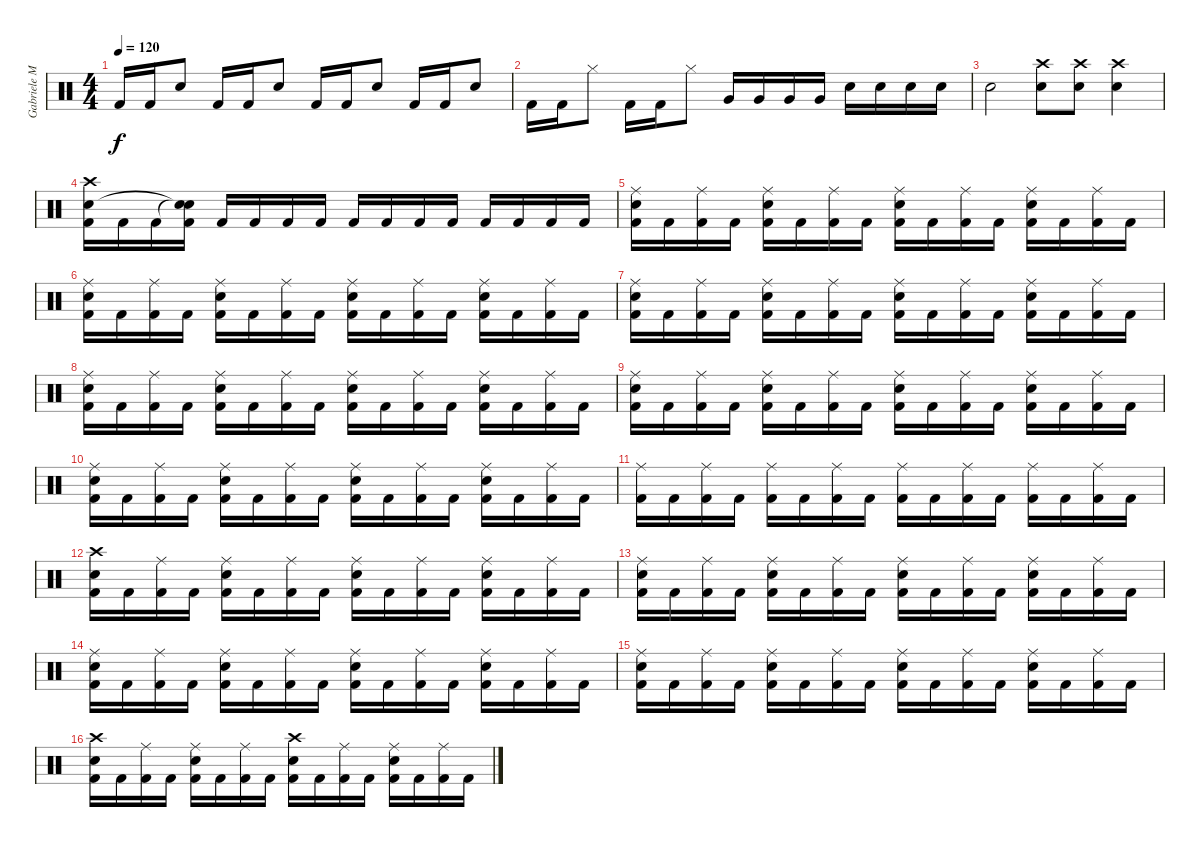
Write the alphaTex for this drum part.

\track ("Gabriele Malatesta" "Gabriele M") {instrument percussion}
\staff {score}
\articulation defaults
\ts (4 4)
\tempo 120
\clef neutral
\ks c "Kick (hit) 2".16{dy f} "Kick (hit) 2".16 "Electric Snare (hit)".8 "Kick (hit) 2".16 "Kick (hit) 2".16 "Electric Snare (hit)".8 "Kick (hit) 2".16 "Kick (hit) 2".16 "Electric Snare (hit)".8 "Kick (hit) 2".16 "Kick (hit) 2".16 "Electric Snare (hit)".8
|
"Kick (hit) 2".16 "Kick (hit) 2".16 "Hi-Hat (closed)".8 "Kick (hit) 2".16 "Kick (hit) 2".16 "Hi-Hat (closed)".8 "Very Low Tom (hit)".16 "Very Low Tom (hit)".16 "Very Low Tom (hit)".16 "Very Low Tom (hit)".16 "Electric Snare (hit)".16 "Electric Snare (hit)".16 "Electric Snare (hit)".16 "Electric Snare (hit)".16 |
"Electric Snare (hit)".2 ("Crash high (hit)" "Electric Snare (hit)").8 ("Crash high (hit)" "Electric Snare (hit)").8 ("Crash high (hit)" "Electric Snare (hit)").4 |
("Crash high (hit)" "Electric Snare (hit)" "Kick (hit) 2").16 "Kick (hit) 2".16 "Kick (hit) 2".16 ("Snare (hit)"{t} "Snare (hit)"{t} "Kick (hit) 2").16 "Kick (hit) 2".16 "Kick (hit) 2".16 "Kick (hit) 2".16 "Kick (hit) 2".16 "Kick (hit) 2".16 "Kick (hit) 2".16 "Kick (hit) 2".16 "Kick (hit) 2".16 "Kick (hit) 2".16 "Kick (hit) 2".16 "Kick (hit) 2".16 "Kick (hit) 2".16 |
("Ride (middle)" "Electric Snare (hit)" "Kick (hit) 2").16 "Kick (hit) 2".16 ("Ride (middle)" "Kick (hit) 2").16 "Kick (hit) 2".16 ("Ride (middle)" "Electric Snare (hit)" "Kick (hit) 2").16 "Kick (hit) 2".16 ("Ride (middle)" "Kick (hit) 2").16 "Kick (hit) 2".16 ("Ride (middle)" "Electric Snare (hit)" "Kick (hit) 2").16 "Kick (hit) 2".16 ("Ride (middle)" "Kick (hit) 2").16 "Kick (hit) 2".16 ("Ride (middle)" "Electric Snare (hit)" "Kick (hit) 2").16 "Kick (hit) 2".16 ("Ride (middle)" "Kick (hit) 2").16 "Kick (hit) 2".16 |
("Ride (middle)" "Electric Snare (hit)" "Kick (hit) 2").16 "Kick (hit) 2".16 ("Ride (middle)" "Kick (hit) 2").16 "Kick (hit) 2".16 ("Ride (middle)" "Electric Snare (hit)" "Kick (hit) 2").16 "Kick (hit) 2".16 ("Ride (middle)" "Kick (hit) 2").16 "Kick (hit) 2".16 ("Ride (middle)" "Electric Snare (hit)" "Kick (hit) 2").16 "Kick (hit) 2".16 ("Ride (middle)" "Kick (hit) 2").16 "Kick (hit) 2".16 ("Ride (middle)" "Electric Snare (hit)" "Kick (hit) 2").16 "Kick (hit) 2".16 ("Ride (middle)" "Kick (hit) 2").16 "Kick (hit) 2".16 |
("Ride (middle)" "Electric Snare (hit)" "Kick (hit) 2").16 "Kick (hit) 2".16 ("Ride (middle)" "Kick (hit) 2").16 "Kick (hit) 2".16 ("Ride (middle)" "Electric Snare (hit)" "Kick (hit) 2").16 "Kick (hit) 2".16 ("Ride (middle)" "Kick (hit) 2").16 "Kick (hit) 2".16 ("Ride (middle)" "Electric Snare (hit)" "Kick (hit) 2").16 "Kick (hit) 2".16 ("Ride (middle)" "Kick (hit) 2").16 "Kick (hit) 2".16 ("Ride (middle)" "Electric Snare (hit)" "Kick (hit) 2").16 "Kick (hit) 2".16 ("Ride (middle)" "Kick (hit) 2").16 "Kick (hit) 2".16 |
("Ride (middle)" "Electric Snare (hit)" "Kick (hit) 2").16 "Kick (hit) 2".16 ("Ride (middle)" "Kick (hit) 2").16 "Kick (hit) 2".16 ("Ride (middle)" "Electric Snare (hit)" "Kick (hit) 2").16 "Kick (hit) 2".16 ("Ride (middle)" "Kick (hit) 2").16 "Kick (hit) 2".16 ("Ride (middle)" "Electric Snare (hit)" "Kick (hit) 2").16 "Kick (hit) 2".16 ("Ride (middle)" "Kick (hit) 2").16 "Kick (hit) 2".16 ("Ride (middle)" "Electric Snare (hit)" "Kick (hit) 2").16 "Kick (hit) 2".16 ("Ride (middle)" "Kick (hit) 2").16 "Kick (hit) 2".16 |
("Ride (middle)" "Electric Snare (hit)" "Kick (hit) 2").16 "Kick (hit) 2".16 ("Ride (middle)" "Kick (hit) 2").16 "Kick (hit) 2".16 ("Ride (middle)" "Electric Snare (hit)" "Kick (hit) 2").16 "Kick (hit) 2".16 ("Ride (middle)" "Kick (hit) 2").16 "Kick (hit) 2".16 ("Ride (middle)" "Electric Snare (hit)" "Kick (hit) 2").16 "Kick (hit) 2".16 ("Ride (middle)" "Kick (hit) 2").16 "Kick (hit) 2".16 ("Ride (middle)" "Electric Snare (hit)" "Kick (hit) 2").16 "Kick (hit) 2".16 ("Ride (middle)" "Kick (hit) 2").16 "Kick (hit) 2".16 |
("Ride (middle)" "Electric Snare (hit)" "Kick (hit) 2").16 "Kick (hit) 2".16 ("Ride (middle)" "Kick (hit) 2").16 "Kick (hit) 2".16 ("Ride (middle)" "Electric Snare (hit)" "Kick (hit) 2").16 "Kick (hit) 2".16 ("Ride (middle)" "Kick (hit) 2").16 "Kick (hit) 2".16 ("Ride (middle)" "Electric Snare (hit)" "Kick (hit) 2").16 "Kick (hit) 2".16 ("Ride (middle)" "Kick (hit) 2").16 "Kick (hit) 2".16 ("Ride (middle)" "Electric Snare (hit)" "Kick (hit) 2").16 "Kick (hit) 2".16 ("Ride (middle)" "Kick (hit) 2").16 "Kick (hit) 2".16 |
("Ride (middle)" "Kick (hit) 2").16 "Kick (hit) 2".16 ("Ride (middle)" "Kick (hit) 2").16 "Kick (hit) 2".16 ("Ride (middle)" "Kick (hit) 2").16 "Kick (hit) 2".16 ("Ride (middle)" "Kick (hit) 2").16 "Kick (hit) 2".16 ("Ride (middle)" "Kick (hit) 2").16 "Kick (hit) 2".16 ("Ride (middle)" "Kick (hit) 2").16 "Kick (hit) 2".16 ("Ride (middle)" "Kick (hit) 2").16 "Kick (hit) 2".16 ("Ride (middle)" "Kick (hit) 2").16 "Kick (hit) 2".16 |
("Crash high (hit)" "Electric Snare (hit)" "Kick (hit) 2").16 "Kick (hit) 2".16 ("Ride (middle)" "Kick (hit) 2").16 "Kick (hit) 2".16 ("Ride (middle)" "Electric Snare (hit)" "Kick (hit) 2").16 "Kick (hit) 2".16 ("Ride (middle)" "Kick (hit) 2").16 "Kick (hit) 2".16 ("Ride (middle)" "Electric Snare (hit)" "Kick (hit) 2").16 "Kick (hit) 2".16 ("Ride (middle)" "Kick (hit) 2").16 "Kick (hit) 2".16 ("Ride (middle)" "Electric Snare (hit)" "Kick (hit) 2").16 "Kick (hit) 2".16 ("Ride (middle)" "Kick (hit) 2").16 "Kick (hit) 2".16 |
("Ride (middle)" "Electric Snare (hit)" "Kick (hit) 2").16 "Kick (hit) 2".16 ("Ride (middle)" "Kick (hit) 2").16 "Kick (hit) 2".16 ("Ride (middle)" "Electric Snare (hit)" "Kick (hit) 2").16 "Kick (hit) 2".16 ("Ride (middle)" "Kick (hit) 2").16 "Kick (hit) 2".16 ("Ride (middle)" "Electric Snare (hit)" "Kick (hit) 2").16 "Kick (hit) 2".16 ("Ride (middle)" "Kick (hit) 2").16 "Kick (hit) 2".16 ("Ride (middle)" "Electric Snare (hit)" "Kick (hit) 2").16 "Kick (hit) 2".16 ("Ride (middle)" "Kick (hit) 2").16 "Kick (hit) 2".16 |
("Ride (middle)" "Electric Snare (hit)" "Kick (hit) 2").16 "Kick (hit) 2".16 ("Ride (middle)" "Kick (hit) 2").16 "Kick (hit) 2".16 ("Ride (middle)" "Electric Snare (hit)" "Kick (hit) 2").16 "Kick (hit) 2".16 ("Ride (middle)" "Kick (hit) 2").16 "Kick (hit) 2".16 ("Ride (middle)" "Electric Snare (hit)" "Kick (hit) 2").16 "Kick (hit) 2".16 ("Ride (middle)" "Kick (hit) 2").16 "Kick (hit) 2".16 ("Ride (middle)" "Electric Snare (hit)" "Kick (hit) 2").16 "Kick (hit) 2".16 ("Ride (middle)" "Kick (hit) 2").16 "Kick (hit) 2".16 |
("Ride (middle)" "Electric Snare (hit)" "Kick (hit) 2").16 "Kick (hit) 2".16 ("Ride (middle)" "Kick (hit) 2").16 "Kick (hit) 2".16 ("Ride (middle)" "Electric Snare (hit)" "Kick (hit) 2").16 "Kick (hit) 2".16 ("Ride (middle)" "Kick (hit) 2").16 "Kick (hit) 2".16 ("Ride (middle)" "Electric Snare (hit)" "Kick (hit) 2").16 "Kick (hit) 2".16 ("Ride (middle)" "Kick (hit) 2").16 "Kick (hit) 2".16 ("Ride (middle)" "Electric Snare (hit)" "Kick (hit) 2").16 "Kick (hit) 2".16 ("Ride (middle)" "Kick (hit) 2").16 "Kick (hit) 2".16 |
("Crash high (hit)" "Electric Snare (hit)" "Kick (hit) 2").16 "Kick (hit) 2".16 ("Ride (middle)" "Kick (hit) 2").16 "Kick (hit) 2".16 ("Ride (middle)" "Electric Snare (hit)" "Kick (hit) 2").16 "Kick (hit) 2".16 ("Ride (middle)" "Kick (hit) 2").16 "Kick (hit) 2".16 ("Crash high (hit)" "Electric Snare (hit)" "Kick (hit) 2").16 "Kick (hit) 2".16 ("Ride (middle)" "Kick (hit) 2").16 "Kick (hit) 2".16 ("Ride (middle)" "Electric Snare (hit)" "Kick (hit) 2").16 "Kick (hit) 2".16 ("Ride (middle)" "Kick (hit) 2").16 "Kick (hit) 2".16
